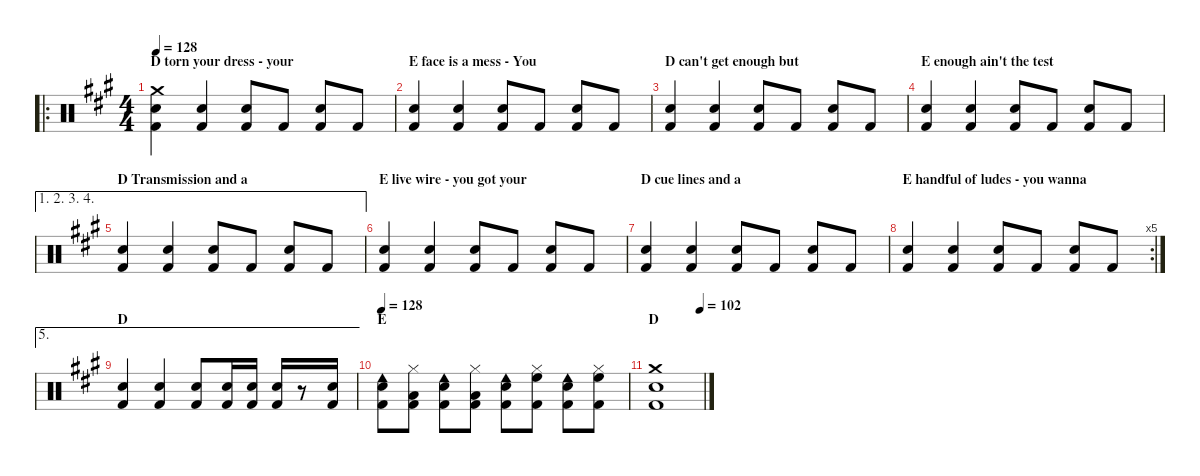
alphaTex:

\hideDynamics
\bracketExtendMode nobrackets
\singleTrackTrackNamePolicy hidden
\multiTrackTrackNamePolicy hidden
\firstSystemTrackNameMode fullname
\firstSystemTrackNameOrientation horizontal
\otherSystemsTrackNameOrientation horizontal
\track ("Drumkit" "Drums") {instrument percussion}
\staff {score}
\articulation defaults
\ro
\ts (4 4)
\section ("" "D torn your dress - your")
\tempo 128
\clef neutral
\scale
0.320388
\ks a
("Crash medium (hit)"{acc forcenatural} "Snare (hit) 2"{acc forcenatural} "Kick (hit) 2"{acc forcenatural}).4{dy f beam Down} ("Snare (hit) 2"{acc forcenatural} "Kick (hit) 2"{acc forcenatural}).4{beam Up} ("Snare (hit) 2"{acc forcenatural} "Kick (hit) 2"{acc forcenatural}).8{beam Up} "Kick (hit) 2"{acc forcenatural}.8{beam Up} ("Snare (hit) 2"{acc forcenatural} "Kick (hit) 2"{acc forcenatural}).8{beam Up} "Kick (hit) 2"{acc forcenatural}.8{beam Up} |
\section ("" "E face is a mess - You")
\scale
0.226537 ("Snare (hit) 2"{acc forcenatural} "Kick (hit) 2"{acc forcenatural}).4{beam Up} ("Snare (hit) 2"{acc forcenatural} "Kick (hit) 2"{acc forcenatural}).4{beam Up} ("Snare (hit) 2"{acc forcenatural} "Kick (hit) 2"{acc forcenatural}).8{beam Up} "Kick (hit) 2"{acc forcenatural}.8{beam Up} ("Snare (hit) 2"{acc forcenatural} "Kick (hit) 2"{acc forcenatural}).8{beam Up} "Kick (hit) 2"{acc forcenatural}.8{beam Up} |
\section ("" "D can't get enough but ")
\scale
0.226537 ("Snare (hit) 2"{acc forcenatural} "Kick (hit) 2"{acc forcenatural}).4{beam Up} ("Snare (hit) 2"{acc forcenatural} "Kick (hit) 2"{acc forcenatural}).4{beam Up} ("Snare (hit) 2"{acc forcenatural} "Kick (hit) 2"{acc forcenatural}).8{beam Up} "Kick (hit) 2"{acc forcenatural}.8{beam Up} ("Snare (hit) 2"{acc forcenatural} "Kick (hit) 2"{acc forcenatural}).8{beam Up} "Kick (hit) 2"{acc forcenatural}.8{beam Up} |
\section ("" "E enough ain't the test")
\scale
0.226537 ("Snare (hit) 2"{acc forcenatural} "Kick (hit) 2"{acc forcenatural}).4{beam Up} ("Snare (hit) 2"{acc forcenatural} "Kick (hit) 2"{acc forcenatural}).4{beam Up} ("Snare (hit) 2"{acc forcenatural} "Kick (hit) 2"{acc forcenatural}).8{beam Up} "Kick (hit) 2"{acc forcenatural}.8{beam Up} ("Snare (hit) 2"{acc forcenatural} "Kick (hit) 2"{acc forcenatural}).8{beam Up} "Kick (hit) 2"{acc forcenatural}.8{beam Up} |
\ae (1 2 3 4)
\section ("" "D Transmission and a")
("Snare (hit) 2"{acc forcenatural} "Kick (hit) 2"{acc forcenatural}).4{beam Up} ("Snare (hit) 2"{acc forcenatural} "Kick (hit) 2"{acc forcenatural}).4{beam Up} ("Snare (hit) 2"{acc forcenatural} "Kick (hit) 2"{acc forcenatural}).8{beam Up} "Kick (hit) 2"{acc forcenatural}.8{beam Up} ("Snare (hit) 2"{acc forcenatural} "Kick (hit) 2"{acc forcenatural}).8{beam Up} "Kick (hit) 2"{acc forcenatural}.8{beam Up} |
\section ("" "E live wire - you got your")
("Snare (hit) 2"{acc forcenatural} "Kick (hit) 2"{acc forcenatural}).4{beam Up} ("Snare (hit) 2"{acc forcenatural} "Kick (hit) 2"{acc forcenatural}).4{beam Up} ("Snare (hit) 2"{acc forcenatural} "Kick (hit) 2"{acc forcenatural}).8{beam Up} "Kick (hit) 2"{acc forcenatural}.8{beam Up} ("Snare (hit) 2"{acc forcenatural} "Kick (hit) 2"{acc forcenatural}).8{beam Up} "Kick (hit) 2"{acc forcenatural}.8{beam Up} |
\section ("" "D cue lines and a")
("Snare (hit) 2"{acc forcenatural} "Kick (hit) 2"{acc forcenatural}).4{beam Up} ("Snare (hit) 2"{acc forcenatural} "Kick (hit) 2"{acc forcenatural}).4{beam Up} ("Snare (hit) 2"{acc forcenatural} "Kick (hit) 2"{acc forcenatural}).8{beam Up} "Kick (hit) 2"{acc forcenatural}.8{beam Up} ("Snare (hit) 2"{acc forcenatural} "Kick (hit) 2"{acc forcenatural}).8{beam Up} "Kick (hit) 2"{acc forcenatural}.8{beam Up} |
\rc 5
\section ("" "E handful of ludes - you wanna")
("Snare (hit) 2"{acc forcenatural} "Kick (hit) 2"{acc forcenatural}).4{beam Up} ("Snare (hit) 2"{acc forcenatural} "Kick (hit) 2"{acc forcenatural}).4{beam Up} ("Snare (hit) 2"{acc forcenatural} "Kick (hit) 2"{acc forcenatural}).8{beam Up} "Kick (hit) 2"{acc forcenatural}.8{beam Up} ("Snare (hit) 2"{acc forcenatural} "Kick (hit) 2"{acc forcenatural}).8{beam Up} "Kick (hit) 2"{acc forcenatural}.8{beam Up} |
\ae 5
\section ("" "D")
("Snare (hit) 2"{acc forcenatural} "Kick (hit) 2"{acc forcenatural}).4{beam Up} ("Snare (hit) 2"{acc forcenatural} "Kick (hit) 2"{acc forcenatural}).4{beam Up} ("Snare (hit) 2"{acc forcenatural} "Kick (hit) 2"{acc forcenatural}).8{beam Up} ("Snare (hit) 2"{acc forcenatural} "Kick (hit) 2"{acc forcenatural}).16{beam Up} ("Snare (hit) 2"{acc forcenatural} "Kick (hit) 2"{acc forcenatural}).16{beam Up} ("Snare (hit) 2"{acc forcenatural} "Kick (hit) 2"{acc forcenatural}).16{beam Up} r.8{beam Up} ("Snare (hit) 2"{acc forcenatural} "Kick (hit) 2"{acc forcenatural}).16{beam Up} |
\section ("" "E")
\tempo 128
("Kick (hit) 2"{acc forcenatural} "Cowbell low (hit)"{acc forcenatural} "Snare (hit) 2"{acc forcenatural}).8{dy mp beam Down} ("Kick (hit) 2"{acc forcenatural} "Hi-Hat (closed)"{acc forcenatural} "Low Tom (hit)"{acc forcenatural}).8{dy f beam Down} ("Kick (hit) 2"{acc forcenatural} "Cowbell low (hit)"{acc forcenatural} "Snare (hit) 2"{acc forcenatural}).8{dy mp beam Down} ("Kick (hit) 2"{acc forcenatural} "Hi-Hat (closed)"{acc forcenatural} "Low Tom (hit)"{acc forcenatural}).8{dy f beam Down} ("Kick (hit) 2"{acc forcenatural} "Cowbell low (hit)"{acc forcenatural} "Snare (hit) 2"{acc forcenatural}).8{dy mp beam Down} ("Kick (hit) 2"{acc forcenatural} "Hi-Hat (closed)"{acc forcenatural} "High Floor Tom (hit)"{acc forcenatural}).8{dy f beam Down} ("Kick (hit) 2"{acc forcenatural} "Cowbell low (hit)"{acc forcenatural} "Snare (hit) 2"{acc forcenatural}).8{dy mp beam Down} ("Kick (hit) 2"{acc forcenatural} "Hi-Hat (closed)"{acc forcenatural} "High Floor Tom (hit)"{acc forcenatural}).8{dy f beam Down} |
\section ("" "D")
\tempo (102 0.93125)
("Crash medium (hit)"{acc forcenatural} "Snare (hit) 2"{acc forcenatural} "Kick (hit) 2"{acc forcenatural}).1{beam Down}
